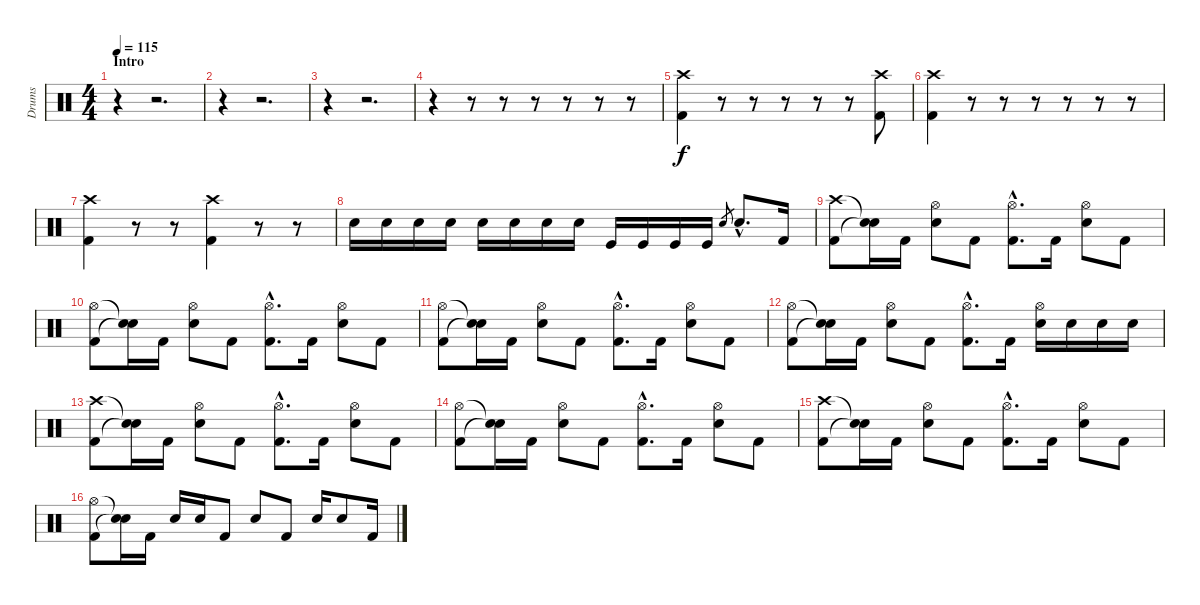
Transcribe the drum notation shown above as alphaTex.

\track ("Drums" "Drums") {instrument percussion}
\staff {score}
\articulation defaults
\ts (4 4)
\section ("" "Intro")
\tempo 115
\clef neutral
\ks c
r.4{dy f} r.2{d} |
r.4 r.2{d} |
r.4 r.2{d} |
r.4 r.8 r.8 r.8 r.8 r.8 r.8 |
("Crash high (hit)" "Kick (hit) 2").4 r.8 r.8 r.8 r.8 r.8 ("Crash high (hit)" "Kick (hit) 2").8 |
("Crash high (hit)" "Kick (hit) 2").4 r.8 r.8 r.8 r.8 r.8 r.8 |
("Crash high (hit)" "Kick (hit) 2").4 r.8 r.8 ("Crash high (hit)" "Kick (hit) 2").4 r.8 r.8 |
"Electric Snare (hit)".16 "Electric Snare (hit)".16 "Electric Snare (hit)".16 "Electric Snare (hit)".16 "Snare (hit) 2".16 "Snare (hit) 2".16 "Snare (hit) 2".16 "Snare (hit) 2".16 "Kick (hit)".16 "Kick (hit)".16 "Kick (hit)".16 "Kick (hit)".16 "Snare (hit) 2".8{gr} "Snare (hit) 2"{hac}.8{d} "Kick (hit) 2".16 |
("Crash high (hit)" "Kick (hit) 2").8 ("Snare (hit)"{t} "Snare (hit)"{t}).16 "Kick (hit) 2".16 ("Hi-Hat (open)" "Snare (hit) 2").8 "Kick (hit) 2".8 ("Hi-Hat (open)"{hac} "Kick (hit) 2"{hac}).8{d} "Kick (hit) 2".16 ("Hi-Hat (open)" "Snare (hit) 2").8 "Kick (hit) 2".8 |
("Hi-Hat (open)" "Kick (hit) 2").8 ("Snare (hit)"{t} "Snare (hit)"{t}).16 "Kick (hit) 2".16 ("Hi-Hat (open)" "Snare (hit) 2").8 "Kick (hit) 2".8 ("Hi-Hat (open)"{hac} "Kick (hit) 2"{hac}).8{d} "Kick (hit) 2".16 ("Hi-Hat (open)" "Snare (hit) 2").8 "Kick (hit) 2".8 |
("Hi-Hat (open)" "Kick (hit) 2").8 ("Snare (hit)"{t} "Snare (hit)"{t}).16 "Kick (hit) 2".16 ("Hi-Hat (open)" "Snare (hit) 2").8 "Kick (hit) 2".8 ("Hi-Hat (open)"{hac} "Kick (hit) 2"{hac}).8{d} "Kick (hit) 2".16 ("Hi-Hat (open)" "Snare (hit) 2").8 "Kick (hit) 2".8 |
("Hi-Hat (open)" "Kick (hit) 2").8 ("Snare (hit)"{t} "Snare (hit)"{t}).16 "Kick (hit) 2".16 ("Hi-Hat (open)" "Snare (hit) 2").8 "Kick (hit) 2".8 ("Hi-Hat (open)"{hac} "Kick (hit) 2"{hac}).8{d} "Kick (hit) 2".16 ("Hi-Hat (open)" "Snare (hit) 2").16 "Snare (hit) 2".16 "Snare (hit) 2".16 "Snare (hit) 2".16 |
("Crash high (hit)" "Kick (hit) 2").8 ("Snare (hit)"{t} "Snare (hit)"{t}).16 "Kick (hit) 2".16 ("Hi-Hat (open)" "Snare (hit) 2").8 "Kick (hit) 2".8 ("Hi-Hat (open)"{hac} "Kick (hit) 2"{hac}).8{d} "Kick (hit) 2".16 ("Hi-Hat (open)" "Snare (hit) 2").8 "Kick (hit) 2".8 |
("Hi-Hat (open)" "Kick (hit) 2").8 ("Snare (hit)"{t} "Snare (hit)"{t}).16 "Kick (hit) 2".16 ("Hi-Hat (open)" "Snare (hit) 2").8 "Kick (hit) 2".8 ("Hi-Hat (open)"{hac} "Kick (hit) 2"{hac}).8{d} "Kick (hit) 2".16 ("Hi-Hat (open)" "Snare (hit) 2").8 "Kick (hit) 2".8 |
("Crash high (hit)" "Kick (hit) 2").8 ("Snare (hit)"{t} "Snare (hit)"{t}).16 "Kick (hit) 2".16 ("Hi-Hat (open)" "Snare (hit) 2").8 "Kick (hit) 2".8 ("Hi-Hat (open)"{hac} "Kick (hit) 2"{hac}).8{d} "Kick (hit) 2".16 ("Hi-Hat (open)" "Snare (hit) 2").8 "Kick (hit) 2".8 |
("Hi-Hat (open)" "Kick (hit) 2").8 ("Snare (hit)"{t} "Snare (hit)"{t}).16 "Kick (hit) 2".16 "Snare (hit) 2".16 "Snare (hit) 2".16 "Kick (hit) 2".8 "Snare (hit) 2".8 "Kick (hit) 2".8 "Snare (hit) 2".16 "Snare (hit) 2".8 "Kick (hit) 2".16
